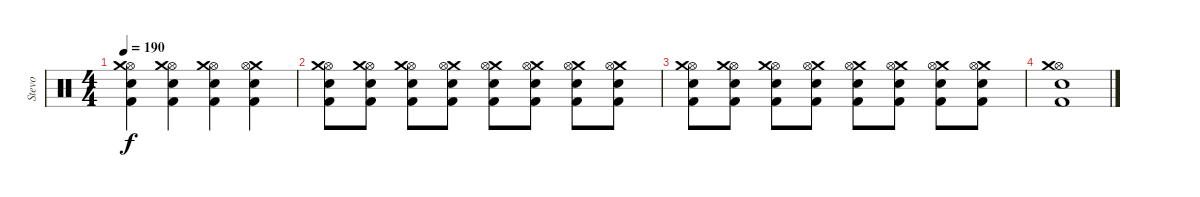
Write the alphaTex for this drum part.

\track ("Stevo" "Stevo") {instrument percussion}
\staff {score}
\articulation defaults
\ts (4 4)
\tempo 190
\clef neutral
\ks c
("Hi-Hat (open)" "Crash medium (hit)" "Electric Snare (hit)" "Kick (hit) 2").4{dy f} ("Hi-Hat (open)" "Crash medium (hit)" "Electric Snare (hit)" "Kick (hit) 2").4 ("Hi-Hat (open)" "Crash medium (hit)" "Electric Snare (hit)" "Kick (hit) 2").4 ("Crash medium (hit)" "Hi-Hat (open)" "Electric Snare (hit)" "Kick (hit) 2").4 |
("Hi-Hat (open)" "Crash medium (hit)" "Electric Snare (hit)" "Kick (hit) 2").8 ("Hi-Hat (open)" "Crash medium (hit)" "Electric Snare (hit)" "Kick (hit) 2").8 ("Hi-Hat (open)" "Crash medium (hit)" "Electric Snare (hit)" "Kick (hit) 2").8 ("Crash medium (hit)" "Hi-Hat (open)" "Electric Snare (hit)" "Kick (hit) 2").8 ("Crash medium (hit)" "Hi-Hat (open)" "Electric Snare (hit)" "Kick (hit) 2").8 ("Crash medium (hit)" "Hi-Hat (open)" "Electric Snare (hit)" "Kick (hit) 2").8 ("Crash medium (hit)" "Hi-Hat (open)" "Electric Snare (hit)" "Kick (hit) 2").8 ("Crash medium (hit)" "Hi-Hat (open)" "Electric Snare (hit)" "Kick (hit) 2").8 |
("Hi-Hat (open)" "Crash medium (hit)" "Electric Snare (hit)" "Kick (hit) 2").8 ("Hi-Hat (open)" "Crash medium (hit)" "Electric Snare (hit)" "Kick (hit) 2").8 ("Hi-Hat (open)" "Crash medium (hit)" "Electric Snare (hit)" "Kick (hit) 2").8 ("Crash medium (hit)" "Hi-Hat (open)" "Electric Snare (hit)" "Kick (hit) 2").8 ("Crash medium (hit)" "Hi-Hat (open)" "Electric Snare (hit)" "Kick (hit) 2").8 ("Crash medium (hit)" "Hi-Hat (open)" "Electric Snare (hit)" "Kick (hit) 2").8 ("Crash medium (hit)" "Hi-Hat (open)" "Electric Snare (hit)" "Kick (hit) 2").8 ("Crash medium (hit)" "Hi-Hat (open)" "Electric Snare (hit)" "Kick (hit) 2").8 |
("Hi-Hat (open)" "Crash medium (hit)" "Electric Snare (hit)" "Kick (hit) 2").1
